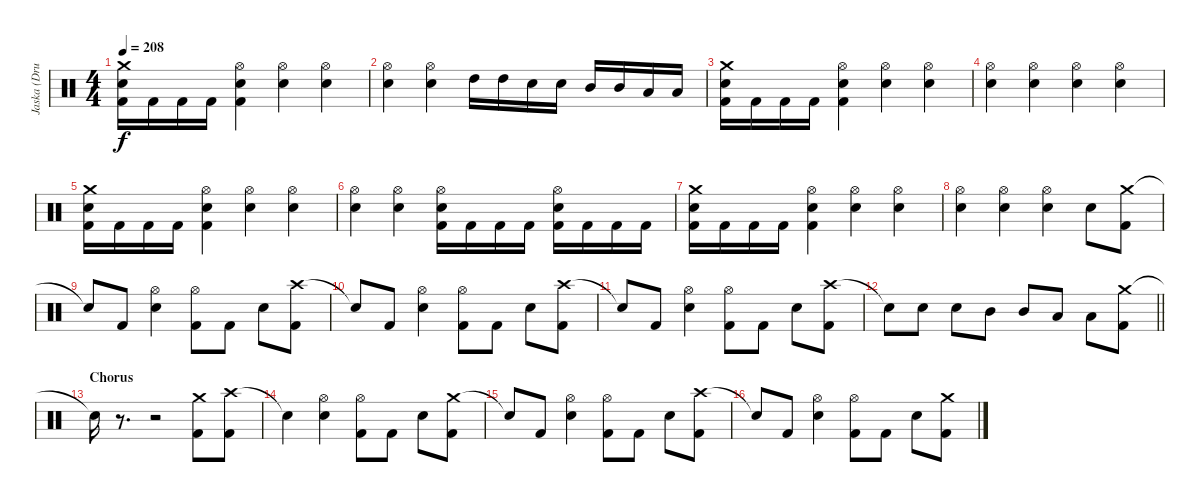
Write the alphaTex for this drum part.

\track ("Jaska (Drums)" "Jaska (Dru") {instrument percussion}
\staff {score}
\articulation defaults
\ts (4 4)
\tempo 208
\clef neutral
\ks c
("Crash medium (hit)" "Electric Snare (hit)" "Kick (hit) 2").16{dy f} "Kick (hit) 2".16 "Kick (hit) 2".16 "Kick (hit) 2".16 ("Hi-Hat (open)" "Electric Snare (hit)" "Kick (hit) 2").4 ("Hi-Hat (open)" "Electric Snare (hit)").4 ("Hi-Hat (open)" "Electric Snare (hit)").4 |
("Hi-Hat (open)" "Electric Snare (hit)").4 ("Hi-Hat (open)" "Electric Snare (hit)").4 "High Tom (hit)".16 "High Tom (hit)".16 "Electric Snare (hit)".16 "Electric Snare (hit)".16 "Mid Tom (hit)".16 "Mid Tom (hit)".16 "Low Tom (hit)".16 "Low Tom (hit)".16 |
("Crash medium (hit)" "Electric Snare (hit)" "Kick (hit) 2").16 "Kick (hit) 2".16 "Kick (hit) 2".16 "Kick (hit) 2".16 ("Hi-Hat (open)" "Electric Snare (hit)" "Kick (hit) 2").4 ("Hi-Hat (open)" "Electric Snare (hit)").4 ("Hi-Hat (open)" "Electric Snare (hit)").4 |
("Hi-Hat (open)" "Electric Snare (hit)").4 ("Hi-Hat (open)" "Electric Snare (hit)").4 ("Hi-Hat (open)" "Electric Snare (hit)").4 ("Hi-Hat (open)" "Electric Snare (hit)").4 |
("Crash medium (hit)" "Electric Snare (hit)" "Kick (hit) 2").16 "Kick (hit) 2".16 "Kick (hit) 2".16 "Kick (hit) 2".16 ("Hi-Hat (open)" "Electric Snare (hit)" "Kick (hit) 2").4 ("Hi-Hat (open)" "Electric Snare (hit)").4 ("Hi-Hat (open)" "Electric Snare (hit)").4 |
("Hi-Hat (open)" "Electric Snare (hit)").4 ("Hi-Hat (open)" "Electric Snare (hit)").4 ("Hi-Hat (open)" "Electric Snare (hit)" "Kick (hit) 2").16 "Kick (hit) 2".16 "Kick (hit) 2".16 "Kick (hit) 2".16 ("Hi-Hat (open)" "Electric Snare (hit)" "Kick (hit) 2").16 "Kick (hit) 2".16 "Kick (hit) 2".16 "Kick (hit) 2".16 |
("Crash medium (hit)" "Electric Snare (hit)" "Kick (hit) 2").16 "Kick (hit) 2".16 "Kick (hit) 2".16 "Kick (hit) 2".16 ("Hi-Hat (open)" "Electric Snare (hit)" "Kick (hit) 2").4 ("Hi-Hat (open)" "Electric Snare (hit)").4 ("Hi-Hat (open)" "Electric Snare (hit)").4 |
("Hi-Hat (open)" "Electric Snare (hit)").4 ("Hi-Hat (open)" "Electric Snare (hit)").4 ("Hi-Hat (open)" "Electric Snare (hit)").4 "Electric Snare (hit)".8 ("Crash medium (hit)" "Kick (hit) 2").8 |
"Snare (hit)"{t}.8 "Kick (hit) 2".8 ("Hi-Hat (open)" "Electric Snare (hit)").4 ("Hi-Hat (open)" "Kick (hit) 2").8 "Kick (hit) 2".8 "Electric Snare (hit)".8 ("Crash high (hit)" "Kick (hit) 2").8 |
"Snare (hit)"{t}.8 "Kick (hit) 2".8 ("Hi-Hat (open)" "Electric Snare (hit)").4 ("Hi-Hat (open)" "Kick (hit) 2").8 "Kick (hit) 2".8 "Electric Snare (hit)".8 ("Crash high (hit)" "Kick (hit) 2").8 |
"Snare (hit)"{t}.8 "Kick (hit) 2".8 ("Hi-Hat (open)" "Electric Snare (hit)").4 ("Hi-Hat (open)" "Kick (hit) 2").8 "Kick (hit) 2".8 "Electric Snare (hit)".8 ("Crash high (hit)" "Kick (hit) 2").8 |
\barLineRight lightlight "Snare (hit)"{t}.8 "Electric Snare (hit)".8 "Electric Snare (hit)".8 "Mid Tom (hit)".8 "Mid Tom (hit)".8 "Low Tom (hit)".8 "Low Tom (hit)".8
("Crash medium (hit)" "Kick (hit) 2").8 |
\section ("" "Chorus")
"Snare (hit)"{t}.16 r.8{d volume 0} r.2 ("Crash medium (hit)" "Kick (hit) 2").8{volume 16} ("Crash high (hit)" "Kick (hit) 2").8 |
"Snare (hit)"{t}.4 ("Hi-Hat (open)" "Electric Snare (hit)").4 ("Hi-Hat (open)" "Kick (hit) 2").8 "Kick (hit) 2".8 "Electric Snare (hit)".8 ("Crash medium (hit)" "Kick (hit) 2").8 |
"Snare (hit)"{t}.8 "Kick (hit) 2".8 ("Hi-Hat (open)" "Electric Snare (hit)").4 ("Hi-Hat (open)" "Kick (hit) 2").8 "Kick (hit) 2".8 "Electric Snare (hit)".8 ("Crash high (hit)" "Kick (hit) 2").8 |
"Snare (hit)"{t}.8 "Kick (hit) 2".8 ("Hi-Hat (open)" "Electric Snare (hit)").4 ("Hi-Hat (open)" "Kick (hit) 2").8 "Kick (hit) 2".8 "Electric Snare (hit)".8 ("Crash medium (hit)" "Kick (hit) 2").8
